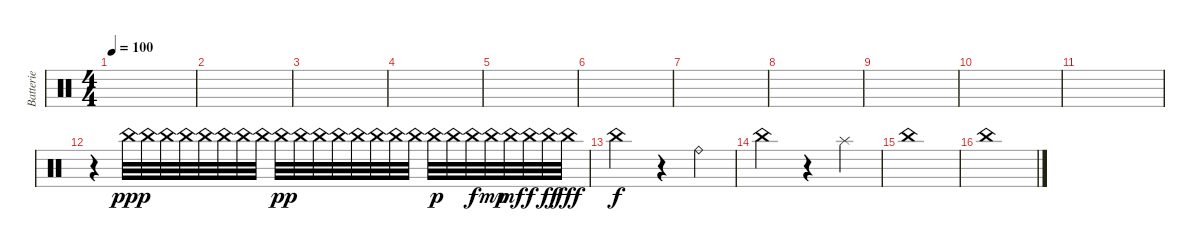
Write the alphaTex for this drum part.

\track ("Batterie" "Batterie") {instrument percussion}
\staff {score}
\articulation defaults
\ts (4 4)
\tempo 100
\clef neutral
\ks c
|
|
|
|
|
|
|
|
|
|
|
r.4 "China (hit)".32{dy ppp} "China (hit)".32 "China (hit)".32 "China (hit)".32 "China (hit)".32 "China (hit)".32 "China (hit)".32 "China (hit)".32 "China (hit)".32{dy pp} "China (hit)".32 "China (hit)".32 "China (hit)".32 "China (hit)".32 "China (hit)".32 "China (hit)".32 "China (hit)".32 "China (hit)".32{dy p} "China (hit)".32 "China (hit)".32{dy f} "China (hit)".32{dy mp} "China (hit)".32{dy mf} "China (hit)".32{dy f} "China (hit)".32{dy ff} "China (hit)".32{dy fff} |
"China (hit)".2{dy f} r.4 "Ride (bell)".4 |
"China (hit)".2 r.4 "Splash (hit)".4 |
"China (hit)".1 |
"China (hit)".1
